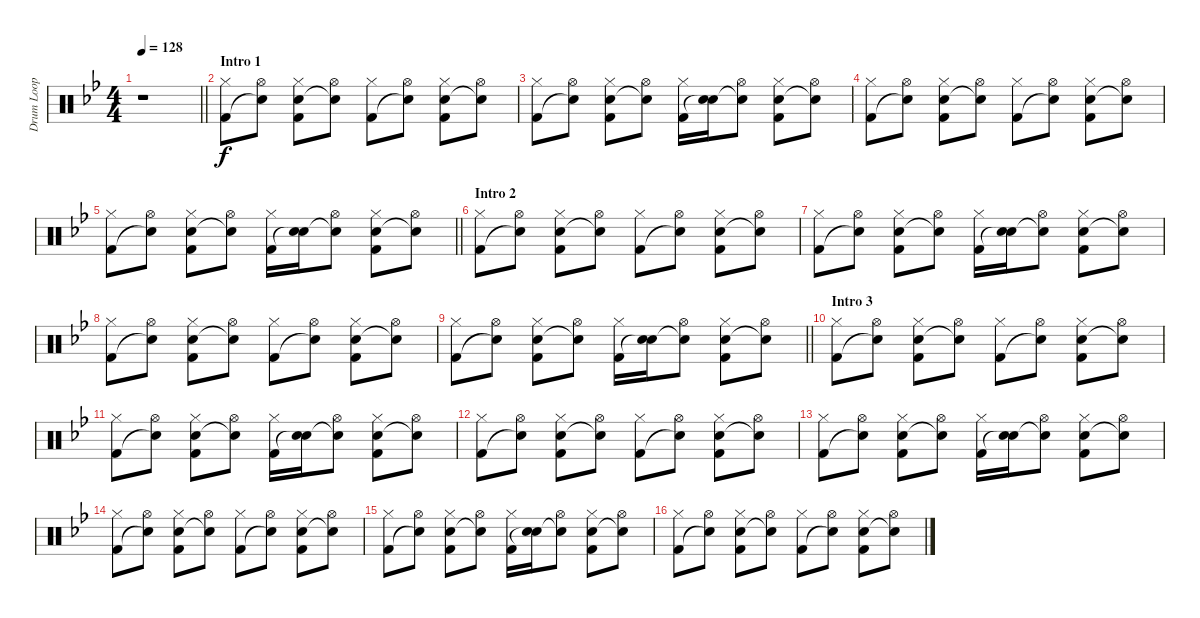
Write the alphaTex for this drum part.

\track ("Drum Loop" "Drum Loop") {instrument percussion}
\staff {score}
\articulation defaults
\ts (4 4)
\tempo 128
\clef neutral
\barLineRight lightlight
\ks gminor
r.1{dy f} |
\section ("" "Intro 1")
("Hi-Hat (closed)" "Kick (hit) 2").8 ("Hi-Hat (open)" "Snare (hit)"{t}).8 ("Hi-Hat (closed)" "Electric Snare (hit)" "Kick (hit) 2").8 ("Hi-Hat (open)" "Snare (hit)"{t}).8 ("Hi-Hat (closed)" "Kick (hit) 2").8 ("Hi-Hat (open)" "Snare (hit)"{t}).8 ("Hi-Hat (closed)" "Electric Snare (hit)" "Kick (hit) 2").8 ("Hi-Hat (open)" "Snare (hit)"{t}).8 |
("Hi-Hat (closed)" "Kick (hit) 2").8 ("Hi-Hat (open)" "Snare (hit)"{t}).8 ("Hi-Hat (closed)" "Electric Snare (hit)" "Kick (hit) 2").8 ("Hi-Hat (open)" "Snare (hit)"{t}).8 ("Hi-Hat (closed)" "Kick (hit) 2").16 ("Electric Snare (hit)" "Snare (hit)"{t}).16 ("Hi-Hat (open)" "Snare (hit)"{t}).8 ("Hi-Hat (closed)" "Electric Snare (hit)" "Kick (hit) 2").8 ("Hi-Hat (open)" "Snare (hit)"{t}).8 |
("Hi-Hat (closed)" "Kick (hit) 2").8 ("Hi-Hat (open)" "Snare (hit)"{t}).8 ("Hi-Hat (closed)" "Electric Snare (hit)" "Kick (hit) 2").8 ("Hi-Hat (open)" "Snare (hit)"{t}).8 ("Hi-Hat (closed)" "Kick (hit) 2").8 ("Hi-Hat (open)" "Snare (hit)"{t}).8 ("Hi-Hat (closed)" "Electric Snare (hit)" "Kick (hit) 2").8 ("Hi-Hat (open)" "Snare (hit)"{t}).8 |
\barLineRight lightlight
("Hi-Hat (closed)" "Kick (hit) 2").8 ("Hi-Hat (open)" "Snare (hit)"{t}).8 ("Hi-Hat (closed)" "Electric Snare (hit)" "Kick (hit) 2").8 ("Hi-Hat (open)" "Snare (hit)"{t}).8 ("Hi-Hat (closed)" "Kick (hit) 2").16 ("Electric Snare (hit)" "Snare (hit)"{t}).16 ("Hi-Hat (open)" "Snare (hit)"{t}).8 ("Hi-Hat (closed)" "Electric Snare (hit)" "Kick (hit) 2").8 ("Hi-Hat (open)" "Snare (hit)"{t}).8 |
\section ("" "Intro 2")
("Hi-Hat (closed)" "Kick (hit) 2").8 ("Hi-Hat (open)" "Snare (hit)"{t}).8 ("Hi-Hat (closed)" "Electric Snare (hit)" "Kick (hit) 2").8 ("Hi-Hat (open)" "Snare (hit)"{t}).8 ("Hi-Hat (closed)" "Kick (hit) 2").8 ("Hi-Hat (open)" "Snare (hit)"{t}).8 ("Hi-Hat (closed)" "Electric Snare (hit)" "Kick (hit) 2").8 ("Hi-Hat (open)" "Snare (hit)"{t}).8 |
("Hi-Hat (closed)" "Kick (hit) 2").8 ("Hi-Hat (open)" "Snare (hit)"{t}).8 ("Hi-Hat (closed)" "Electric Snare (hit)" "Kick (hit) 2").8 ("Hi-Hat (open)" "Snare (hit)"{t}).8 ("Hi-Hat (closed)" "Kick (hit) 2").16 ("Electric Snare (hit)" "Snare (hit)"{t}).16 ("Hi-Hat (open)" "Snare (hit)"{t}).8 ("Hi-Hat (closed)" "Electric Snare (hit)" "Kick (hit) 2").8 ("Hi-Hat (open)" "Snare (hit)"{t}).8 |
("Hi-Hat (closed)" "Kick (hit) 2").8 ("Hi-Hat (open)" "Snare (hit)"{t}).8 ("Hi-Hat (closed)" "Electric Snare (hit)" "Kick (hit) 2").8 ("Hi-Hat (open)" "Snare (hit)"{t}).8 ("Hi-Hat (closed)" "Kick (hit) 2").8 ("Hi-Hat (open)" "Snare (hit)"{t}).8 ("Hi-Hat (closed)" "Electric Snare (hit)" "Kick (hit) 2").8 ("Hi-Hat (open)" "Snare (hit)"{t}).8 |
\barLineRight lightlight
("Hi-Hat (closed)" "Kick (hit) 2").8 ("Hi-Hat (open)" "Snare (hit)"{t}).8 ("Hi-Hat (closed)" "Electric Snare (hit)" "Kick (hit) 2").8 ("Hi-Hat (open)" "Snare (hit)"{t}).8 ("Hi-Hat (closed)" "Kick (hit) 2").16 ("Electric Snare (hit)" "Snare (hit)"{t}).16 ("Hi-Hat (open)" "Snare (hit)"{t}).8 ("Hi-Hat (closed)" "Electric Snare (hit)" "Kick (hit) 2").8 ("Hi-Hat (open)" "Snare (hit)"{t}).8 |
\section ("" "Intro 3")
("Hi-Hat (closed)" "Kick (hit) 2").8 ("Hi-Hat (open)" "Snare (hit)"{t}).8 ("Hi-Hat (closed)" "Electric Snare (hit)" "Kick (hit) 2").8 ("Hi-Hat (open)" "Snare (hit)"{t}).8 ("Hi-Hat (closed)" "Kick (hit) 2").8 ("Hi-Hat (open)" "Snare (hit)"{t}).8 ("Hi-Hat (closed)" "Electric Snare (hit)" "Kick (hit) 2").8 ("Hi-Hat (open)" "Snare (hit)"{t}).8 |
("Hi-Hat (closed)" "Kick (hit) 2").8 ("Hi-Hat (open)" "Snare (hit)"{t}).8 ("Hi-Hat (closed)" "Electric Snare (hit)" "Kick (hit) 2").8 ("Hi-Hat (open)" "Snare (hit)"{t}).8 ("Hi-Hat (closed)" "Kick (hit) 2").16 ("Electric Snare (hit)" "Snare (hit)"{t}).16 ("Hi-Hat (open)" "Snare (hit)"{t}).8 ("Hi-Hat (closed)" "Electric Snare (hit)" "Kick (hit) 2").8 ("Hi-Hat (open)" "Snare (hit)"{t}).8 |
("Hi-Hat (closed)" "Kick (hit) 2").8 ("Hi-Hat (open)" "Snare (hit)"{t}).8 ("Hi-Hat (closed)" "Electric Snare (hit)" "Kick (hit) 2").8 ("Hi-Hat (open)" "Snare (hit)"{t}).8 ("Hi-Hat (closed)" "Kick (hit) 2").8 ("Hi-Hat (open)" "Snare (hit)"{t}).8 ("Hi-Hat (closed)" "Electric Snare (hit)" "Kick (hit) 2").8 ("Hi-Hat (open)" "Snare (hit)"{t}).8 |
("Hi-Hat (closed)" "Kick (hit) 2").8 ("Hi-Hat (open)" "Snare (hit)"{t}).8 ("Hi-Hat (closed)" "Electric Snare (hit)" "Kick (hit) 2").8 ("Hi-Hat (open)" "Snare (hit)"{t}).8 ("Hi-Hat (closed)" "Kick (hit) 2").16 ("Electric Snare (hit)" "Snare (hit)"{t}).16 ("Hi-Hat (open)" "Snare (hit)"{t}).8 ("Hi-Hat (closed)" "Electric Snare (hit)" "Kick (hit) 2").8 ("Hi-Hat (open)" "Snare (hit)"{t}).8 |
("Hi-Hat (closed)" "Kick (hit) 2").8 ("Hi-Hat (open)" "Snare (hit)"{t}).8 ("Hi-Hat (closed)" "Electric Snare (hit)" "Kick (hit) 2").8 ("Hi-Hat (open)" "Snare (hit)"{t}).8 ("Hi-Hat (closed)" "Kick (hit) 2").8 ("Hi-Hat (open)" "Snare (hit)"{t}).8 ("Hi-Hat (closed)" "Electric Snare (hit)" "Kick (hit) 2").8 ("Hi-Hat (open)" "Snare (hit)"{t}).8 |
("Hi-Hat (closed)" "Kick (hit) 2").8 ("Hi-Hat (open)" "Snare (hit)"{t}).8 ("Hi-Hat (closed)" "Electric Snare (hit)" "Kick (hit) 2").8 ("Hi-Hat (open)" "Snare (hit)"{t}).8 ("Hi-Hat (closed)" "Kick (hit) 2").16 ("Electric Snare (hit)" "Snare (hit)"{t}).16 ("Hi-Hat (open)" "Snare (hit)"{t}).8 ("Hi-Hat (closed)" "Electric Snare (hit)" "Kick (hit) 2").8 ("Hi-Hat (open)" "Snare (hit)"{t}).8 |
("Hi-Hat (closed)" "Kick (hit) 2").8 ("Hi-Hat (open)" "Snare (hit)"{t}).8 ("Hi-Hat (closed)" "Electric Snare (hit)" "Kick (hit) 2").8 ("Hi-Hat (open)" "Snare (hit)"{t}).8 ("Hi-Hat (closed)" "Kick (hit) 2").8 ("Hi-Hat (open)" "Snare (hit)"{t}).8 ("Hi-Hat (closed)" "Electric Snare (hit)" "Kick (hit) 2").8 ("Hi-Hat (open)" "Snare (hit)"{t}).8
